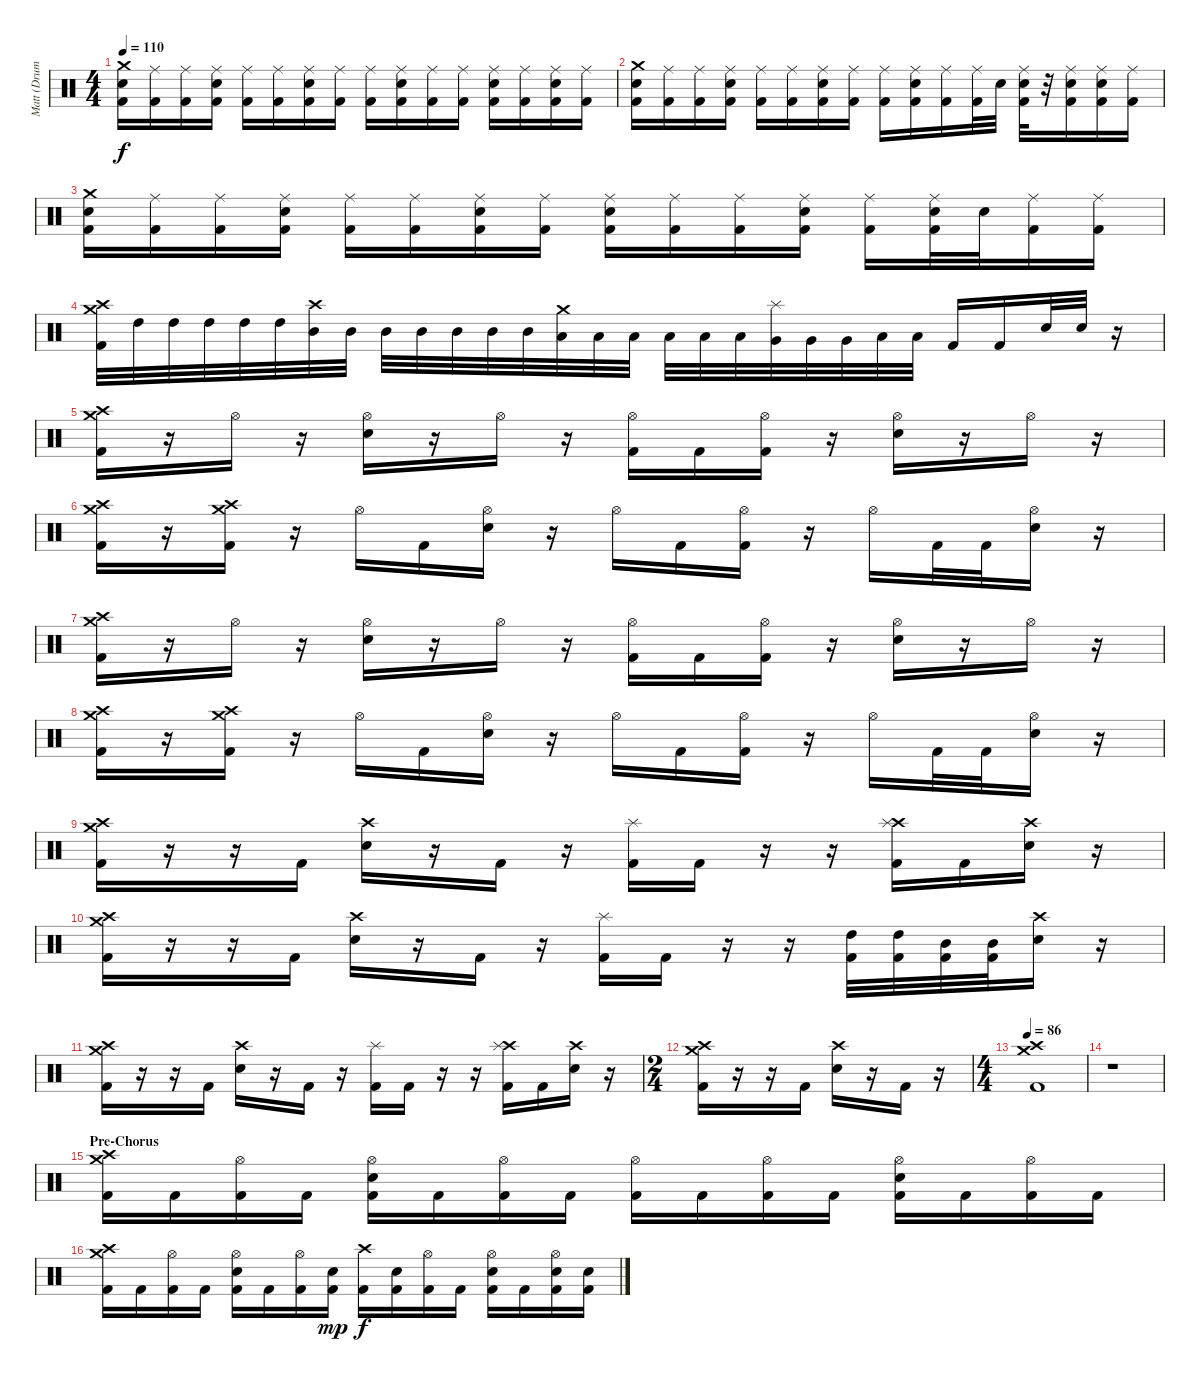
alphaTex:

\track ("Matt (Drums)" "Matt (Drum") {instrument percussion}
\staff {score}
\articulation defaults
\ts (4 4)
\tempo 110
\clef neutral
\ks c
("Crash medium (hit)" "Snare (hit) 2" "Kick (hit) 2").16{dy f} ("Ride (middle)" "Kick (hit) 2").16 ("Ride (middle)" "Kick (hit) 2").16 ("Ride (middle)" "Snare (hit) 2" "Kick (hit) 2").16 ("Ride (middle)" "Kick (hit) 2").16 ("Ride (middle)" "Kick (hit) 2").16 ("Ride (middle)" "Snare (hit) 2" "Kick (hit) 2").16 ("Ride (middle)" "Kick (hit) 2").16 ("Ride (middle)" "Kick (hit) 2").16 ("Ride (middle)" "Snare (hit) 2" "Kick (hit) 2").16 ("Ride (middle)" "Kick (hit) 2").16 ("Ride (middle)" "Kick (hit) 2").16 ("Ride (middle)" "Snare (hit) 2" "Kick (hit) 2").16 ("Ride (middle)" "Kick (hit) 2").16 ("Ride (middle)" "Snare (hit) 2" "Kick (hit) 2").16 ("Ride (middle)" "Kick (hit) 2").16 |
("Crash medium (hit)" "Snare (hit) 2" "Kick (hit) 2").16 ("Ride (middle)" "Kick (hit) 2").16 ("Ride (middle)" "Kick (hit) 2").16 ("Ride (middle)" "Snare (hit) 2" "Kick (hit) 2").16 ("Ride (middle)" "Kick (hit) 2").16 ("Ride (middle)" "Kick (hit) 2").16 ("Ride (middle)" "Snare (hit) 2" "Kick (hit) 2").16 ("Ride (middle)" "Kick (hit) 2").16 ("Ride (middle)" "Kick (hit) 2").16 ("Ride (middle)" "Snare (hit) 2" "Kick (hit) 2").16 ("Ride (middle)" "Kick (hit) 2").16 ("Ride (middle)" "Kick (hit) 2").32 "Snare (hit) 2".32 ("Ride (middle)" "Snare (hit) 2" "Kick (hit) 2").32 r.32 ("Ride (middle)" "Snare (hit) 2" "Kick (hit) 2").16 ("Ride (middle)" "Snare (hit) 2" "Kick (hit) 2").16 ("Ride (middle)" "Kick (hit) 2").16 |
("Crash medium (hit)" "Snare (hit) 2" "Kick (hit) 2").16 ("Ride (middle)" "Kick (hit) 2").16 ("Ride (middle)" "Kick (hit) 2").16 ("Ride (middle)" "Snare (hit) 2" "Kick (hit) 2").16 ("Ride (middle)" "Kick (hit) 2").16 ("Ride (middle)" "Kick (hit) 2").16 ("Ride (middle)" "Snare (hit) 2" "Kick (hit) 2").16 ("Ride (middle)" "Kick (hit) 2").16 ("Ride (middle)" "Snare (hit) 2" "Kick (hit) 2").16 ("Ride (middle)" "Kick (hit) 2").16 ("Ride (middle)" "Kick (hit) 2").16 ("Ride (middle)" "Snare (hit) 2" "Kick (hit) 2").16 ("Ride (middle)" "Kick (hit) 2").16 ("Ride (middle)" "Snare (hit) 2" "Kick (hit) 2").32 "Snare (hit) 2".32 ("Ride (middle)" "Kick (hit) 2").16 ("Ride (middle)" "Kick (hit) 2").16 |
("Crash medium (hit)" "Crash high (hit)" "Kick (hit) 2").32 "High Tom (hit)".32 "High Tom (hit)".32 "High Tom (hit)".32 "High Tom (hit)".32 "High Tom (hit)".32 ("Crash high (hit)" "Mid Tom (hit)").32 "Mid Tom (hit)".32 "Mid Tom (hit)".32 "Mid Tom (hit)".32 "Mid Tom (hit)".32 "Mid Tom (hit)".32 "Mid Tom (hit)".32 ("Crash medium (hit)" "Low Tom (hit)").32 "Low Tom (hit)".32 "Low Tom (hit)".32 "Low Tom (hit)".32 "Low Tom (hit)".32 "Low Tom (hit)".32 ("Splash (hit)" "Very Low Tom (hit)").32 "Very Low Tom (hit)".32 "Very Low Tom (hit)".32 "Low Floor Tom (hit)".32 "Low Floor Tom (hit)".32 "Kick (hit) 2".16 "Kick (hit) 2".16 "Snare (hit) 2".32 "Snare (hit) 2".32 r.16 |
("Crash medium (hit)" "Crash high (hit)" "Kick (hit) 2").16 r.16 "Hi-Hat (open)".16 r.16 ("Hi-Hat (open)" "Snare (hit) 2").16 r.16 "Hi-Hat (open)".16 r.16 ("Hi-Hat (open)" "Kick (hit) 2").16 "Kick (hit) 2".16 ("Hi-Hat (open)" "Kick (hit) 2").16 r.16 ("Hi-Hat (open)" "Snare (hit) 2").16 r.16 "Hi-Hat (open)".16 r.16 |
("Crash medium (hit)" "Crash high (hit)" "Kick (hit) 2").16 r.16 ("Crash medium (hit)" "Crash high (hit)" "Kick (hit) 2").16 r.16 "Hi-Hat (open)".16 "Kick (hit) 2".16 ("Hi-Hat (open)" "Snare (hit) 2").16 r.16 "Hi-Hat (open)".16 "Kick (hit) 2".16 ("Hi-Hat (open)" "Kick (hit) 2").16 r.16 "Hi-Hat (open)".16 "Kick (hit) 2".32 "Kick (hit) 2".32 ("Hi-Hat (open)" "Snare (hit) 2").16 r.16 |
("Crash medium (hit)" "Crash high (hit)" "Kick (hit) 2").16 r.16 "Hi-Hat (open)".16 r.16 ("Hi-Hat (open)" "Snare (hit) 2").16 r.16 "Hi-Hat (open)".16 r.16 ("Hi-Hat (open)" "Kick (hit) 2").16 "Kick (hit) 2".16 ("Hi-Hat (open)" "Kick (hit) 2").16 r.16 ("Hi-Hat (open)" "Snare (hit) 2").16 r.16 "Hi-Hat (open)".16 r.16 |
("Crash medium (hit)" "Crash high (hit)" "Kick (hit) 2").16 r.16 ("Crash medium (hit)" "Crash high (hit)" "Kick (hit) 2").16 r.16 "Hi-Hat (open)".16 "Kick (hit) 2".16 ("Hi-Hat (open)" "Snare (hit) 2").16 r.16 "Hi-Hat (open)".16 "Kick (hit) 2".16 ("Hi-Hat (open)" "Kick (hit) 2").16 r.16 "Hi-Hat (open)".16 "Kick (hit) 2".32 "Kick (hit) 2".32 ("Hi-Hat (open)" "Snare (hit) 2").16 r.16 |
("Crash medium (hit)" "Crash high (hit)" "Kick (hit) 2").16 r.16 r.16 "Kick (hit) 2".16 ("Crash high (hit)" "Snare (hit) 2").16 r.16 "Kick (hit) 2".16 r.16 ("Splash (hit)" "Kick (hit) 2").16 "Kick (hit) 2".16 r.16 r.16 ("Crash high (hit)" "Splash (hit)" "Kick (hit) 2").16 "Kick (hit) 2".16 ("Crash high (hit)" "Snare (hit) 2").16 r.16 |
("Crash medium (hit)" "Crash high (hit)" "Kick (hit) 2").16 r.16 r.16 "Kick (hit) 2".16 ("Crash high (hit)" "Snare (hit) 2").16 r.16 "Kick (hit) 2".16 r.16 ("Splash (hit)" "Kick (hit) 2").16 "Kick (hit) 2".16 r.16 r.16 ("High Tom (hit)" "Kick (hit) 2").32 ("High Tom (hit)" "Kick (hit) 2").32 ("Mid Tom (hit)" "Kick (hit) 2").32 ("Mid Tom (hit)" "Kick (hit) 2").32 ("Crash high (hit)" "Snare (hit) 2").16 r.16 |
("Crash medium (hit)" "Crash high (hit)" "Kick (hit) 2").16 r.16 r.16 "Kick (hit) 2".16 ("Crash high (hit)" "Snare (hit) 2").16 r.16 "Kick (hit) 2".16 r.16 ("Splash (hit)" "Kick (hit) 2").16 "Kick (hit) 2".16 r.16 r.16 ("Crash high (hit)" "Splash (hit)" "Kick (hit) 2").16 "Kick (hit) 2".16 ("Crash high (hit)" "Snare (hit) 2").16 r.16 |
\ts (2 4)
("Crash medium (hit)" "Crash high (hit)" "Kick (hit) 2").16 r.16 r.16 "Kick (hit) 2".16 ("Crash high (hit)" "Snare (hit) 2").16 r.16 "Kick (hit) 2".16 r.16 |
\ts (4 4)
\tempo 86
("Crash medium (hit)" "Crash high (hit)" "Kick (hit) 2").1 |
r.1 |
\section ("" "Pre-Chorus")
("Crash medium (hit)" "Crash high (hit)" "Kick (hit) 2").16 "Kick (hit) 2".16 ("Hi-Hat (open)" "Kick (hit) 2").16 "Kick (hit) 2".16 ("Hi-Hat (open)" "Snare (hit) 2" "Kick (hit) 2").16 "Kick (hit) 2".16 ("Hi-Hat (open)" "Kick (hit) 2").16 "Kick (hit) 2".16 ("Hi-Hat (open)" "Kick (hit) 2").16 "Kick (hit) 2".16 ("Hi-Hat (open)" "Kick (hit) 2").16 "Kick (hit) 2".16 ("Hi-Hat (open)" "Snare (hit) 2" "Kick (hit) 2").16 "Kick (hit) 2".16 ("Hi-Hat (open)" "Kick (hit) 2").16 "Kick (hit) 2".16 |
("Crash medium (hit)" "Crash high (hit)" "Kick (hit) 2").16 "Kick (hit) 2".16 ("Hi-Hat (open)" "Kick (hit) 2").16 "Kick (hit) 2".16 ("Hi-Hat (open)" "Snare (hit) 2" "Kick (hit) 2").16 "Kick (hit) 2".16 ("Hi-Hat (open)" "Kick (hit) 2").16 ("Snare (hit) 2" "Kick (hit) 2").16{dy mp} ("Crash high (hit)" "Kick (hit) 2").16{dy f} ("Snare (hit) 2" "Kick (hit) 2").16 ("Hi-Hat (open)" "Kick (hit) 2").16 "Kick (hit) 2".16 ("Hi-Hat (open)" "Snare (hit) 2" "Kick (hit) 2").16 "Kick (hit) 2".16 ("Hi-Hat (open)" "Snare (hit) 2" "Kick (hit) 2").16 ("Snare (hit) 2" "Kick (hit) 2").16
